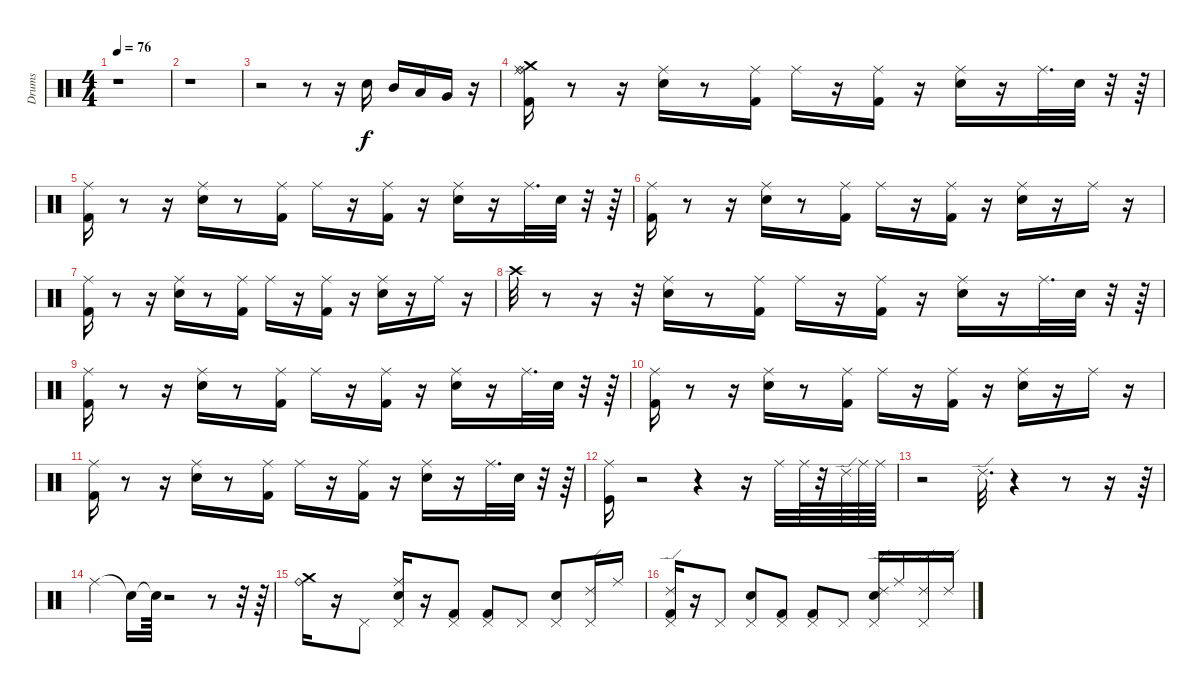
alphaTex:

\track ("Drums" "Drums") {instrument percussion}
\staff {score}
\articulation defaults
\ts (4 4)
\tempo 76
\clef neutral
\ks c
r.1{dy f} |
r.1 |
r.2 r.8 r.16 "Snare (hit) 2".16 "Mid Tom (hit)".16 "Low Tom (hit)".16 "Very Low Tom (hit)".16 r.16 |
("Ride (bell)" "Kick (hit) 2" "Crash medium (hit)" "Ride (middle)").16 r.8 r.16 ("Ride (middle)" "Electric Snare (hit)").16 r.8 ("Ride (middle)" "Kick (hit) 2").16 "Ride (middle)".16 r.16 ("Kick (hit) 2" "Ride (middle)").16 r.16 ("Electric Snare (hit)" "Ride (middle)").16 r.16 "Ride (middle)".32{d} "Electric Snare (hit)".32 r.32 r.64 |
("Kick (hit) 2" "Ride (middle)").16 r.8 r.16 ("Ride (middle)" "Electric Snare (hit)").16 r.8 ("Kick (hit) 2" "Ride (middle)").16 "Ride (middle)".16 r.16 ("Kick (hit) 2" "Ride (middle)").16 r.16 ("Ride (middle)" "Electric Snare (hit)").16 r.16 "Ride (middle)".32{d} "Electric Snare (hit)".32 r.32 r.64 |
("Ride (middle)" "Kick (hit) 2").16 r.8 r.16 ("Electric Snare (hit)" "Ride (middle)").16 r.8 ("Ride (middle)" "Kick (hit) 2").16 "Ride (middle)".16 r.16 ("Ride (middle)" "Kick (hit) 2").16 r.16 ("Electric Snare (hit)" "Ride (middle)").16 r.16 "Ride (middle)".16 r.16 |
("Kick (hit) 2" "Ride (middle)").16 r.8 r.16 ("Electric Snare (hit)" "Ride (middle)").16 r.8 ("Ride (middle)" "Kick (hit) 2").16 "Ride (middle)".16 r.16 ("Ride (middle)" "Kick (hit) 2").16 r.16 ("Ride (middle)" "Electric Snare (hit)").16 r.16 "Ride (middle)".16 r.16 |
"Crash high (hit)".32 r.8 r.16 r.32 ("Electric Snare (hit)" "Ride (middle)").16 r.8 ("Kick (hit) 2" "Ride (middle)").16 "Ride (middle)".16 r.16 ("Kick (hit) 2" "Ride (middle)").16 r.16 ("Ride (middle)" "Electric Snare (hit)").16 r.16 "Ride (middle)".32{d} "Electric Snare (hit)".32 r.32 r.64 |
("Ride (middle)" "Kick (hit) 2").16 r.8 r.16 ("Ride (middle)" "Electric Snare (hit)").16 r.8 ("Kick (hit) 2" "Ride (middle)").16 "Ride (middle)".16 r.16 ("Kick (hit) 2" "Ride (middle)").16 r.16 ("Electric Snare (hit)" "Ride (middle)").16 r.16 "Ride (middle)".32{d} "Electric Snare (hit)".32 r.32 r.64 |
("Kick (hit) 2" "Ride (middle)").16 r.8 r.16 ("Ride (middle)" "Electric Snare (hit)").16 r.8 ("Ride (middle)" "Kick (hit) 2").16 "Ride (middle)".16 r.16 ("Ride (middle)" "Kick (hit) 2").16 r.16 ("Ride (middle)" "Electric Snare (hit)").16 r.16 "Ride (middle)".16 r.16 |
("Kick (hit) 2" "Ride (middle)").16 r.8 r.16 ("Ride (middle)" "Electric Snare (hit)").16 r.8 ("Kick (hit) 2" "Ride (middle)").16 "Ride (middle)".16 r.16 ("Ride (middle)" "Kick (hit) 2").16 r.16 ("Electric Snare (hit)" "Ride (middle)").16 r.16 "Ride (middle)".32{d} "Electric Snare (hit)".32 r.32 r.64 |
("Ride (middle)" "Kick (hit)").16 r.2 r.4 r.16 "Ride (middle)".32 "Ride (middle)".64 r.32 "Ride (edge) 2".64 "Ride (middle)".64 "Ride (middle)".64 |
r.2 "Ride (edge) 2".32{d} r.4 r.8 r.16 r.64 |
"Ride (middle)".4 "Snare (hit)"{t}.16 "Snare (hit)"{t}.64 r.2 r.8 r.32 r.64 |
("Crash medium (hit)" "Ride (bell)").16 r.16 "Pedal Hi-Hat (hit)".8 ("Ride (middle)" "Electric Snare (hit)" "Pedal Hi-Hat (hit)").16 r.16 ("Pedal Hi-Hat (hit)" "Kick (hit) 2").8 ("Kick (hit) 2" "Pedal Hi-Hat (hit)").8 "Pedal Hi-Hat (hit)".8 ("Pedal Hi-Hat (hit)" "Electric Snare (hit)").8 ("Pedal Hi-Hat (hit)" "Ride (edge) 2").16 "Ride (middle)".16 |
("Pedal Hi-Hat (hit)" "Kick (hit) 2" "Ride (edge) 2").16 r.16 "Pedal Hi-Hat (hit)".8 ("Pedal Hi-Hat (hit)" "Electric Snare (hit)").8 ("Pedal Hi-Hat (hit)" "Kick (hit) 2").8 ("Kick (hit) 2" "Pedal Hi-Hat (hit)").8 "Pedal Hi-Hat (hit)".8 ("Pedal Hi-Hat (hit)" "Ride (edge) 2" "Electric Snare (hit)").16 "Ride (middle)".16 ("Ride (edge) 2" "Pedal Hi-Hat (hit)").16 "Ride (edge) 2".16
